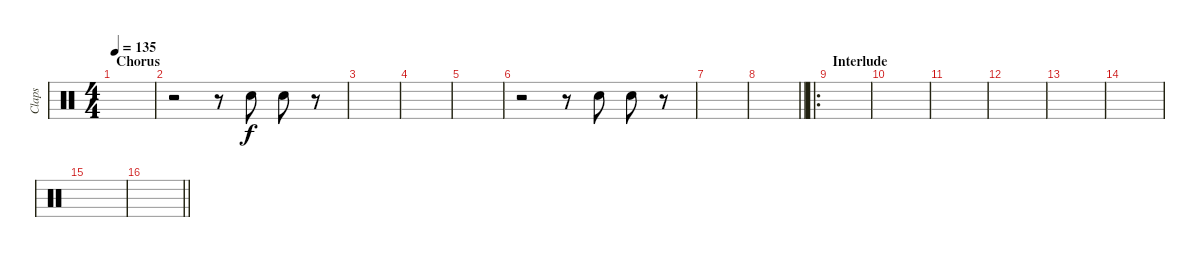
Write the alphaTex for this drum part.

\track ("Claps" "Claps") {instrument percussion}
\staff {score}
\articulation defaults
\ts (4 4)
\section ("" "Chorus")
\tempo 135
\clef neutral
\ks c
|
r.2 r.8 "Hand Clap (hit)".8 "Hand Clap (hit)".8 r.8 |
|
|
|
r.2 r.8 "Hand Clap (hit)".8 "Hand Clap (hit)".8 r.8 |
|
\barLineRight lightlight
|
\ro
\section ("" "Interlude")
|
|
|
|
|
|
|
\barLineRight lightlight
